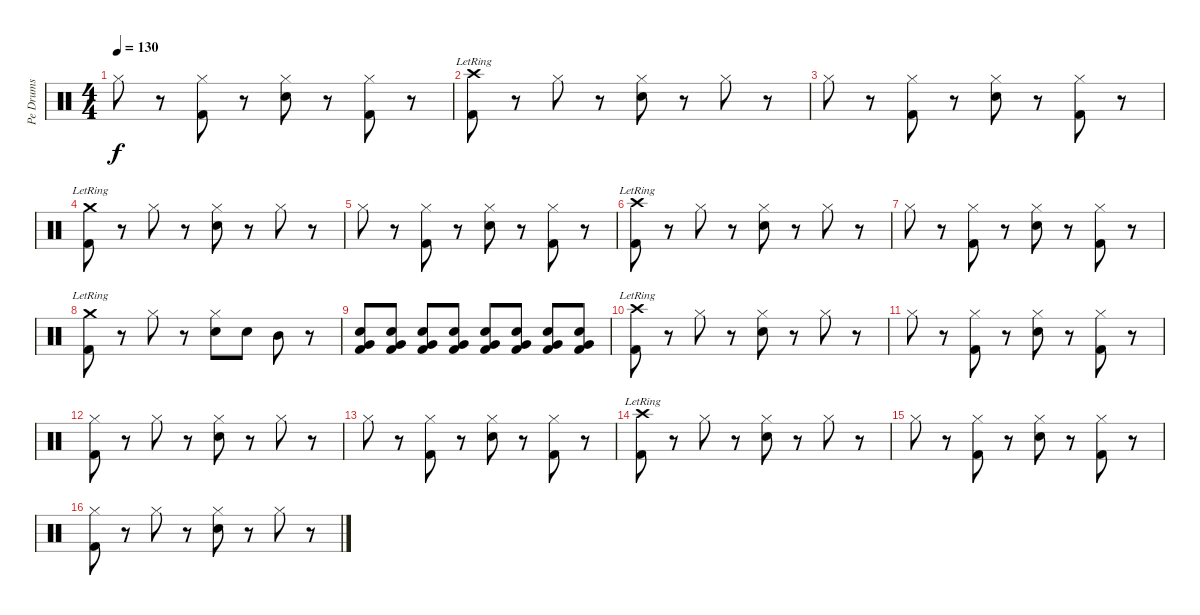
\track ("Pe Drums" "Pe Drums") {instrument percussion}
\staff {score}
\articulation defaults
\ts (4 4)
\tempo 130
\clef neutral
\ks c "Hi-Hat (closed)".8{dy f}
r.8 ("Hi-Hat (closed)" "Kick (hit) 2").8 r.8 ("Hi-Hat (closed)" "Electric Snare (hit)").8 r.8 ("Hi-Hat (closed)" "Kick (hit) 2").8 r.8 |
("Crash high (hit)"{lr} "Kick (hit) 2").8 r.8 "Hi-Hat (closed)".8 r.8 ("Hi-Hat (closed)" "Electric Snare (hit)").8 r.8 "Hi-Hat (closed)".8 r.8 |
"Hi-Hat (closed)".8 r.8 ("Hi-Hat (closed)" "Kick (hit) 2").8 r.8 ("Hi-Hat (closed)" "Electric Snare (hit)").8 r.8 ("Hi-Hat (closed)" "Kick (hit) 2").8 r.8 |
("Crash medium (hit)"{lr} "Kick (hit) 2").8 r.8 "Hi-Hat (closed)".8 r.8 ("Hi-Hat (closed)" "Electric Snare (hit)").8 r.8 "Hi-Hat (closed)".8 r.8 |
"Hi-Hat (closed)".8 r.8 ("Hi-Hat (closed)" "Kick (hit) 2").8 r.8 ("Hi-Hat (closed)" "Electric Snare (hit)").8 r.8 ("Hi-Hat (closed)" "Kick (hit) 2").8 r.8 |
("Crash high (hit)"{lr} "Kick (hit) 2").8 r.8 "Hi-Hat (closed)".8 r.8 ("Hi-Hat (closed)" "Electric Snare (hit)").8 r.8 "Hi-Hat (closed)".8 r.8 |
"Hi-Hat (closed)".8 r.8 ("Hi-Hat (closed)" "Kick (hit) 2").8 r.8 ("Hi-Hat (closed)" "Electric Snare (hit)").8 r.8 ("Hi-Hat (closed)" "Kick (hit) 2").8 r.8 |
("Crash medium (hit)"{lr} "Kick (hit) 2").8 r.8 "Hi-Hat (closed)".8 r.8 ("Hi-Hat (closed)" "Electric Snare (hit)").8 "Electric Snare (hit)".8 "Mid Tom (hit)".8 r.8 |
("Electric Snare (hit)" "Very Low Tom (hit)" "Kick (hit) 2").8 ("Electric Snare (hit)" "Very Low Tom (hit)" "Kick (hit) 2").8 ("Electric Snare (hit)" "Very Low Tom (hit)" "Kick (hit) 2").8 ("Electric Snare (hit)" "Very Low Tom (hit)" "Kick (hit) 2").8 ("Electric Snare (hit)" "Very Low Tom (hit)" "Kick (hit) 2").8 ("Electric Snare (hit)" "Very Low Tom (hit)" "Kick (hit) 2").8 ("Electric Snare (hit)" "Very Low Tom (hit)" "Kick (hit) 2").8 ("Electric Snare (hit)" "Very Low Tom (hit)" "Kick (hit) 2").8 |
("Crash high (hit)"{lr} "Kick (hit) 2").8 r.8 "Hi-Hat (closed)".8 r.8 ("Hi-Hat (closed)" "Electric Snare (hit)").8 r.8 "Hi-Hat (closed)".8 r.8 |
"Hi-Hat (closed)".8 r.8 ("Hi-Hat (closed)" "Kick (hit) 2").8 r.8 ("Hi-Hat (closed)" "Electric Snare (hit)").8 r.8 ("Hi-Hat (closed)" "Kick (hit) 2").8 r.8 |
("Hi-Hat (closed)" "Kick (hit) 2").8 r.8 "Hi-Hat (closed)".8 r.8 ("Hi-Hat (closed)" "Electric Snare (hit)").8 r.8 "Hi-Hat (closed)".8 r.8 |
"Hi-Hat (closed)".8 r.8 ("Hi-Hat (closed)" "Kick (hit) 2").8 r.8 ("Hi-Hat (closed)" "Electric Snare (hit)").8 r.8 ("Hi-Hat (closed)" "Kick (hit) 2").8 r.8 |
("Crash high (hit)"{lr} "Kick (hit) 2").8 r.8 "Hi-Hat (closed)".8 r.8 ("Hi-Hat (closed)" "Electric Snare (hit)").8 r.8 "Hi-Hat (closed)".8 r.8 |
"Hi-Hat (closed)".8 r.8 ("Hi-Hat (closed)" "Kick (hit) 2").8 r.8 ("Hi-Hat (closed)" "Electric Snare (hit)").8 r.8 ("Hi-Hat (closed)" "Kick (hit) 2").8 r.8 |
("Hi-Hat (closed)" "Kick (hit) 2").8 r.8 "Hi-Hat (closed)".8 r.8 ("Hi-Hat (closed)" "Electric Snare (hit)").8 r.8 "Hi-Hat (closed)".8 r.8
